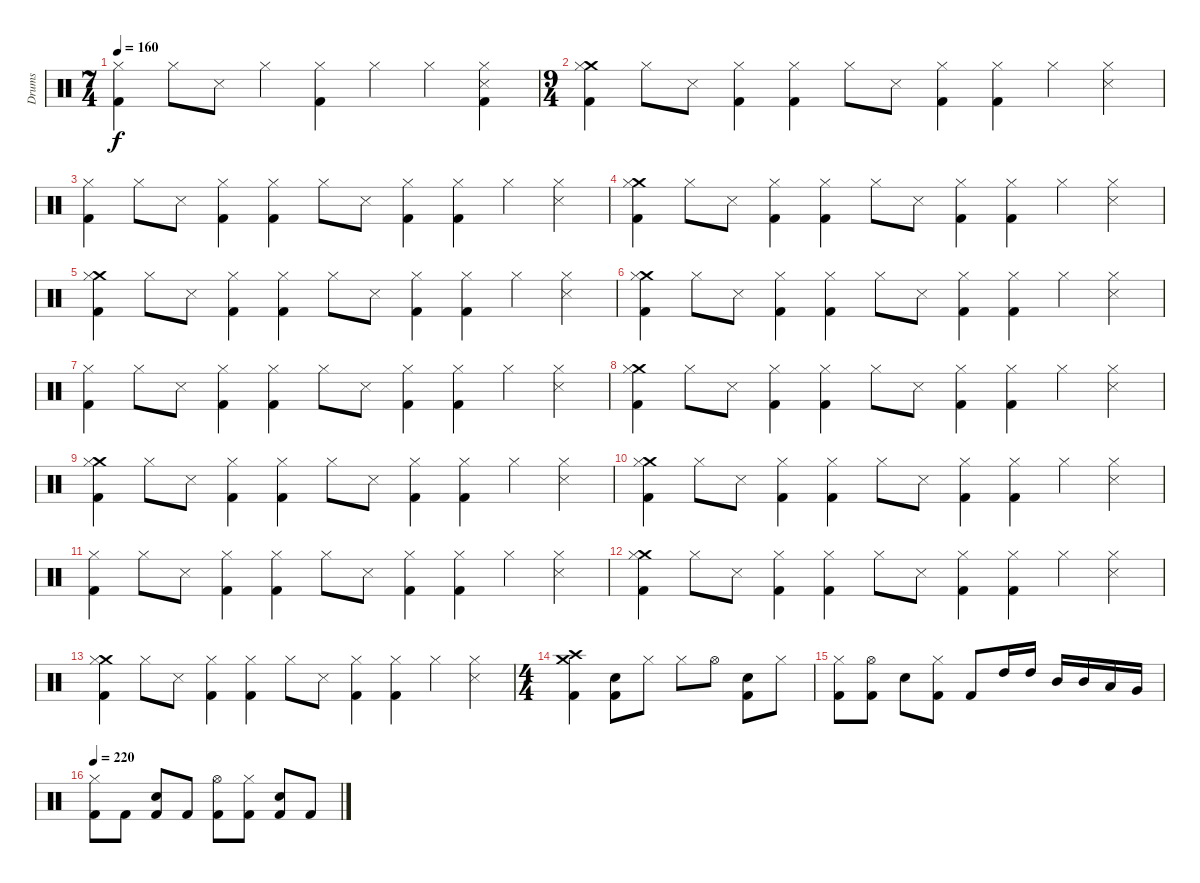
\track ("Drums" "Drums") {instrument percussion}
\staff {score}
\articulation defaults
\ts (7 4)
\tempo 160
\clef neutral
\ks c
("Hi-Hat (closed)" "Kick (hit) 2").4{dy f} "Hi-Hat (closed)".8 "Snare (side stick) 3".8 "Hi-Hat (closed)".4 ("Hi-Hat (closed)" "Kick (hit) 2").4 "Hi-Hat (closed)".4 "Hi-Hat (closed)".4 ("Hi-Hat (closed)" "Snare (side stick) 3" "Kick (hit) 2").4 |
\ts (9 4)
("Crash medium (hit)" "Hi-Hat (closed)" "Kick (hit) 2").4 "Hi-Hat (closed)".8 "Snare (side stick) 3".8 ("Hi-Hat (closed)" "Kick (hit) 2").4 ("Hi-Hat (closed)" "Kick (hit) 2").4 "Hi-Hat (closed)".8 "Snare (side stick) 3".8 ("Hi-Hat (closed)" "Kick (hit) 2").4 ("Hi-Hat (closed)" "Kick (hit) 2").4 "Hi-Hat (closed)".4 ("Snare (side stick) 3" "Hi-Hat (closed)").4 |
("Hi-Hat (closed)" "Kick (hit) 2").4 "Hi-Hat (closed)".8 "Snare (side stick) 3".8 ("Hi-Hat (closed)" "Kick (hit) 2").4 ("Hi-Hat (closed)" "Kick (hit) 2").4 "Hi-Hat (closed)".8 "Snare (side stick) 3".8 ("Hi-Hat (closed)" "Kick (hit) 2").4 ("Hi-Hat (closed)" "Kick (hit) 2").4 "Hi-Hat (closed)".4 ("Snare (side stick) 3" "Hi-Hat (closed)").4 |
("Crash medium (hit)" "Hi-Hat (closed)" "Kick (hit) 2").4 "Hi-Hat (closed)".8 "Snare (side stick) 3".8 ("Hi-Hat (closed)" "Kick (hit) 2").4 ("Hi-Hat (closed)" "Kick (hit) 2").4 "Hi-Hat (closed)".8 "Snare (side stick) 3".8 ("Hi-Hat (closed)" "Kick (hit) 2").4 ("Hi-Hat (closed)" "Kick (hit) 2").4 "Hi-Hat (closed)".4 ("Snare (side stick) 3" "Hi-Hat (closed)").4 |
("Crash medium (hit)" "Hi-Hat (closed)" "Kick (hit) 2").4 "Hi-Hat (closed)".8 "Snare (side stick) 3".8 ("Hi-Hat (closed)" "Kick (hit) 2").4 ("Hi-Hat (closed)" "Kick (hit) 2").4 "Hi-Hat (closed)".8 "Snare (side stick) 3".8 ("Hi-Hat (closed)" "Kick (hit) 2").4 ("Hi-Hat (closed)" "Kick (hit) 2").4 "Hi-Hat (closed)".4 ("Snare (side stick) 3" "Hi-Hat (closed)").4 |
("Crash medium (hit)" "Hi-Hat (closed)" "Kick (hit) 2").4 "Hi-Hat (closed)".8 "Snare (side stick) 3".8 ("Hi-Hat (closed)" "Kick (hit) 2").4 ("Hi-Hat (closed)" "Kick (hit) 2").4 "Hi-Hat (closed)".8 "Snare (side stick) 3".8 ("Hi-Hat (closed)" "Kick (hit) 2").4 ("Hi-Hat (closed)" "Kick (hit) 2").4 "Hi-Hat (closed)".4 ("Snare (side stick) 3" "Hi-Hat (closed)").4 |
("Hi-Hat (closed)" "Kick (hit) 2").4 "Hi-Hat (closed)".8 "Snare (side stick) 3".8 ("Hi-Hat (closed)" "Kick (hit) 2").4 ("Hi-Hat (closed)" "Kick (hit) 2").4 "Hi-Hat (closed)".8 "Snare (side stick) 3".8 ("Hi-Hat (closed)" "Kick (hit) 2").4 ("Hi-Hat (closed)" "Kick (hit) 2").4 "Hi-Hat (closed)".4 ("Snare (side stick) 3" "Hi-Hat (closed)").4 |
("Crash medium (hit)" "Hi-Hat (closed)" "Kick (hit) 2").4 "Hi-Hat (closed)".8 "Snare (side stick) 3".8 ("Hi-Hat (closed)" "Kick (hit) 2").4 ("Hi-Hat (closed)" "Kick (hit) 2").4 "Hi-Hat (closed)".8 "Snare (side stick) 3".8 ("Hi-Hat (closed)" "Kick (hit) 2").4 ("Hi-Hat (closed)" "Kick (hit) 2").4 "Hi-Hat (closed)".4 ("Snare (side stick) 3" "Hi-Hat (closed)").4 |
("Crash medium (hit)" "Hi-Hat (closed)" "Kick (hit) 2").4 "Hi-Hat (closed)".8 "Snare (side stick) 3".8 ("Hi-Hat (closed)" "Kick (hit) 2").4 ("Hi-Hat (closed)" "Kick (hit) 2").4 "Hi-Hat (closed)".8 "Snare (side stick) 3".8 ("Hi-Hat (closed)" "Kick (hit) 2").4 ("Hi-Hat (closed)" "Kick (hit) 2").4 "Hi-Hat (closed)".4 ("Snare (side stick) 3" "Hi-Hat (closed)").4 |
("Crash medium (hit)" "Hi-Hat (closed)" "Kick (hit) 2").4 "Hi-Hat (closed)".8 "Snare (side stick) 3".8 ("Hi-Hat (closed)" "Kick (hit) 2").4 ("Hi-Hat (closed)" "Kick (hit) 2").4 "Hi-Hat (closed)".8 "Snare (side stick) 3".8 ("Hi-Hat (closed)" "Kick (hit) 2").4 ("Hi-Hat (closed)" "Kick (hit) 2").4 "Hi-Hat (closed)".4 ("Snare (side stick) 3" "Hi-Hat (closed)").4 |
("Hi-Hat (closed)" "Kick (hit) 2").4 "Hi-Hat (closed)".8 "Snare (side stick) 3".8 ("Hi-Hat (closed)" "Kick (hit) 2").4 ("Hi-Hat (closed)" "Kick (hit) 2").4 "Hi-Hat (closed)".8 "Snare (side stick) 3".8 ("Hi-Hat (closed)" "Kick (hit) 2").4 ("Hi-Hat (closed)" "Kick (hit) 2").4 "Hi-Hat (closed)".4 ("Snare (side stick) 3" "Hi-Hat (closed)").4 |
("Crash medium (hit)" "Hi-Hat (closed)" "Kick (hit) 2").4 "Hi-Hat (closed)".8 "Snare (side stick) 3".8 ("Hi-Hat (closed)" "Kick (hit) 2").4 ("Hi-Hat (closed)" "Kick (hit) 2").4 "Hi-Hat (closed)".8 "Snare (side stick) 3".8 ("Hi-Hat (closed)" "Kick (hit) 2").4 ("Hi-Hat (closed)" "Kick (hit) 2").4 "Hi-Hat (closed)".4 ("Snare (side stick) 3" "Hi-Hat (closed)").4 |
("Crash medium (hit)" "Hi-Hat (closed)" "Kick (hit) 2").4 "Hi-Hat (closed)".8 "Snare (side stick) 3".8 ("Hi-Hat (closed)" "Kick (hit) 2").4 ("Hi-Hat (closed)" "Kick (hit) 2").4 "Hi-Hat (closed)".8 "Snare (side stick) 3".8 ("Hi-Hat (closed)" "Kick (hit) 2").4 ("Hi-Hat (closed)" "Kick (hit) 2").4 "Hi-Hat (closed)".4 ("Snare (side stick) 3" "Hi-Hat (closed)").4 |
\ts (4 4)
("Crash medium (hit)" "Crash high (hit)" "Kick (hit) 2").4 ("Electric Snare (hit)" "Kick (hit) 2").8 "Hi-Hat (closed)".8 "Hi-Hat (closed)".8 "Hi-Hat (open)".8 ("Electric Snare (hit)" "Kick (hit) 2").8 "Hi-Hat (closed)".8 |
("Hi-Hat (closed)" "Kick (hit) 2").8 ("Hi-Hat (open)" "Kick (hit) 2").8 "Electric Snare (hit)".8 ("Hi-Hat (closed)" "Kick (hit) 2").8 "Kick (hit) 2".8 "High Tom (hit)".16 "High Tom (hit)".16 "Mid Tom (hit)".16 "Mid Tom (hit)".16 "Low Tom (hit)".16 "Very Low Tom (hit)".16 |
\tempo 220
("Hi-Hat (closed)" "Kick (hit) 2").8 "Kick (hit) 2".8 ("Electric Snare (hit)" "Kick (hit) 2").8 "Kick (hit) 2".8 ("Hi-Hat (open)" "Kick (hit) 2").8 ("Hi-Hat (closed)" "Kick (hit) 2").8 ("Electric Snare (hit)" "Kick (hit) 2").8 "Kick (hit) 2".8
